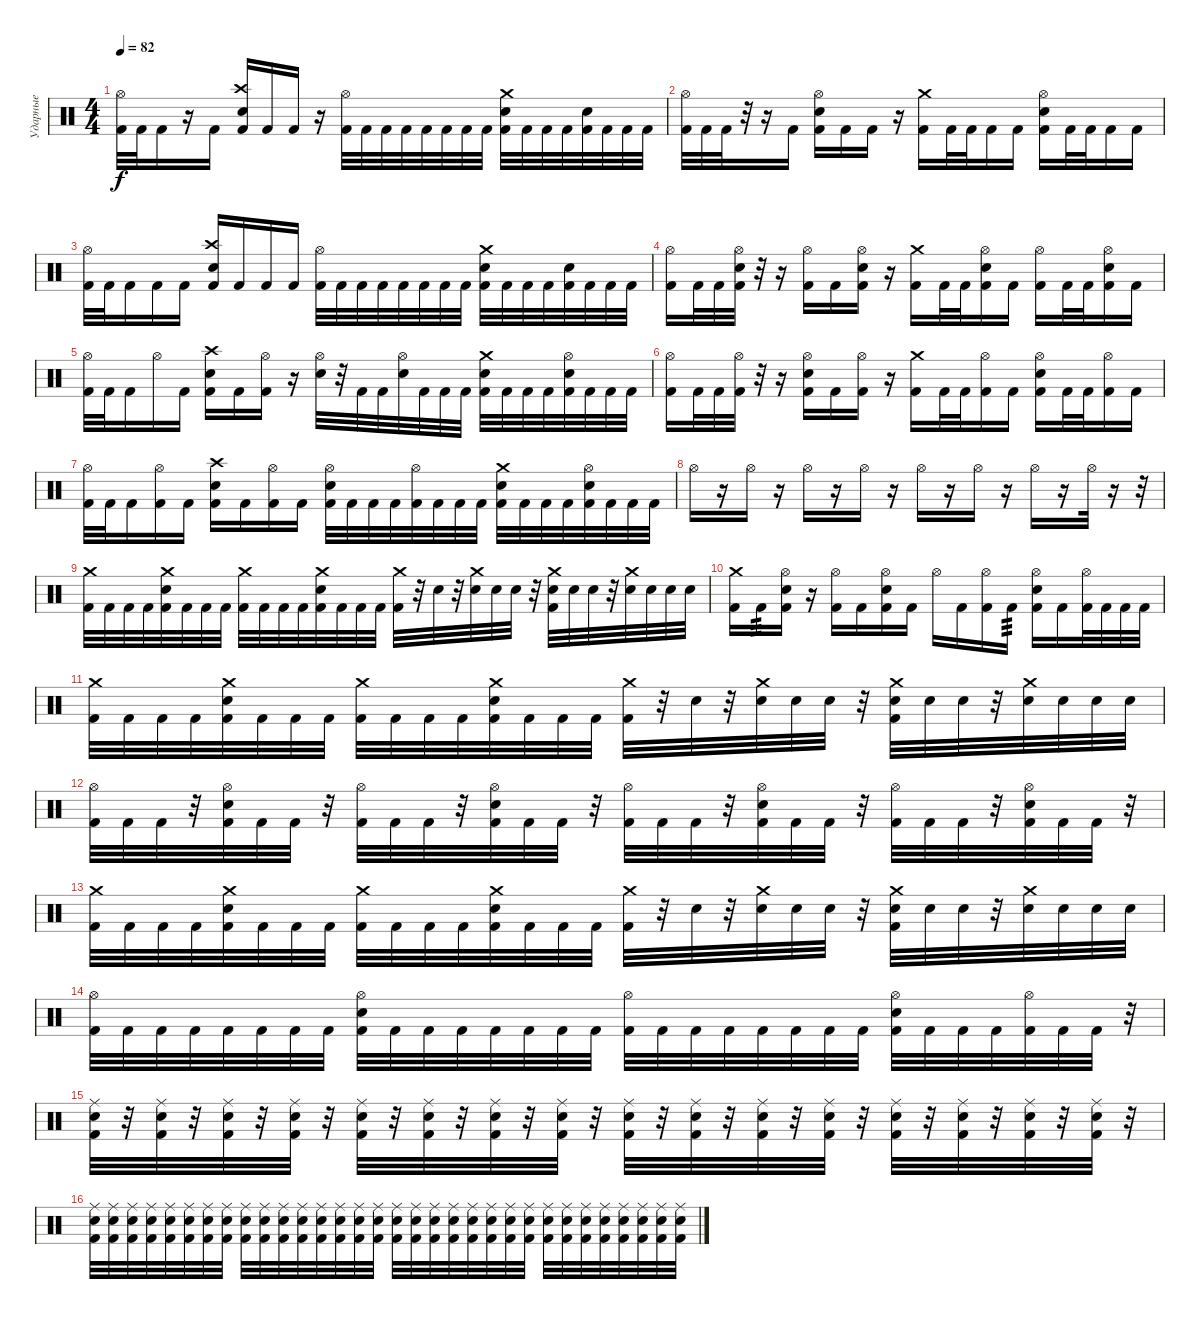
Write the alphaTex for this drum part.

\track ("Ударные" "Ударные") {instrument percussion}
\staff {score}
\articulation defaults
\ts (4 4)
\tempo 82
\clef neutral
\ks c
("Hi-Hat (open)" "Kick (hit) 2").32{dy f} "Kick (hit) 2".32 "Kick (hit) 2".16 r.16 "Kick (hit) 2".16 ("Crash high (hit)" "Snare (hit) 2" "Kick (hit) 2").16 "Kick (hit) 2".16 "Kick (hit) 2".16 r.16 ("Hi-Hat (open)" "Kick (hit) 2").32 "Kick (hit) 2".32 "Kick (hit) 2".32 "Kick (hit) 2".32 "Kick (hit) 2".32 "Kick (hit) 2".32 "Kick (hit) 2".32 "Kick (hit) 2".32 ("Crash medium (hit)" "Snare (hit) 2" "Kick (hit) 2").32 "Kick (hit) 2".32 "Kick (hit) 2".32 "Kick (hit) 2".32 ("Snare (hit) 2" "Kick (hit) 2").32 "Kick (hit) 2".32 "Kick (hit) 2".32 "Kick (hit) 2".32 |
("Hi-Hat (open)" "Kick (hit) 2").32 "Kick (hit) 2".32 "Kick (hit) 2".32 r.32 r.16 "Kick (hit) 2".16 ("Hi-Hat (open)" "Snare (hit) 2" "Kick (hit) 2").16 "Kick (hit) 2".16 "Kick (hit) 2".16 r.16 ("Crash medium (hit)" "Kick (hit) 2").16 "Kick (hit) 2".32 "Kick (hit) 2".32 "Kick (hit) 2".16 "Kick (hit) 2".16 ("Hi-Hat (open)" "Snare (hit) 2" "Kick (hit) 2").16 "Kick (hit) 2".32 "Kick (hit) 2".32 "Kick (hit) 2".16 "Kick (hit) 2".16 |
("Hi-Hat (open)" "Kick (hit) 2").32 "Kick (hit) 2".32 "Kick (hit) 2".16 "Kick (hit) 2".16 "Kick (hit) 2".16 ("Crash high (hit)" "Snare (hit) 2" "Kick (hit) 2").16 "Kick (hit) 2".16 "Kick (hit) 2".16 "Kick (hit) 2".16 ("Hi-Hat (open)" "Kick (hit) 2").32 "Kick (hit) 2".32 "Kick (hit) 2".32 "Kick (hit) 2".32 "Kick (hit) 2".32 "Kick (hit) 2".32 "Kick (hit) 2".32 "Kick (hit) 2".32 ("Crash medium (hit)" "Snare (hit) 2" "Kick (hit) 2").32 "Kick (hit) 2".32 "Kick (hit) 2".32 "Kick (hit) 2".32 ("Snare (hit) 2" "Kick (hit) 2").32 "Kick (hit) 2".32 "Kick (hit) 2".32 "Kick (hit) 2".32 |
("Hi-Hat (open)" "Kick (hit) 2").16 "Kick (hit) 2".32 "Kick (hit) 2".32 ("Hi-Hat (open)" "Snare (hit) 2" "Kick (hit) 2").32 r.32 r.16 ("Hi-Hat (open)" "Kick (hit) 2").16 "Kick (hit) 2".16 ("Hi-Hat (open)" "Snare (hit) 2" "Kick (hit) 2").16 r.16 ("Crash medium (hit)" "Kick (hit) 2").16 "Kick (hit) 2".32 "Kick (hit) 2".32 ("Hi-Hat (open)" "Snare (hit) 2" "Kick (hit) 2").16 "Kick (hit) 2".16 ("Hi-Hat (open)" "Kick (hit) 2").16 "Kick (hit) 2".32 "Kick (hit) 2".32 ("Hi-Hat (open)" "Snare (hit) 2" "Kick (hit) 2").16 "Kick (hit) 2".16 |
("Hi-Hat (open)" "Kick (hit) 2").32 "Kick (hit) 2".32 "Kick (hit) 2".16 "Hi-Hat (open)".16 "Kick (hit) 2".16 ("Crash high (hit)" "Snare (hit) 2" "Kick (hit) 2").16 "Kick (hit) 2".16 ("Hi-Hat (open)" "Kick (hit) 2").16 r.16 ("Hi-Hat (open)" "Snare (hit) 2").32 r.32 "Kick (hit) 2".32 "Kick (hit) 2".32 ("Hi-Hat (open)" "Snare (hit) 2").32 "Kick (hit) 2".32 "Kick (hit) 2".32 "Kick (hit) 2".32 ("Crash medium (hit)" "Snare (hit) 2" "Kick (hit) 2").32 "Kick (hit) 2".32 "Kick (hit) 2".32 "Kick (hit) 2".32 ("Hi-Hat (open)" "Snare (hit) 2" "Kick (hit) 2").32 "Kick (hit) 2".32 "Kick (hit) 2".32 "Kick (hit) 2".32 |
("Hi-Hat (open)" "Kick (hit) 2").16 "Kick (hit) 2".32 "Kick (hit) 2".32 ("Hi-Hat (open)" "Kick (hit) 2").32 r.32 r.16 ("Hi-Hat (open)" "Snare (hit) 2" "Kick (hit) 2").16 "Kick (hit) 2".16 ("Hi-Hat (open)" "Kick (hit) 2").16 r.16 ("Crash medium (hit)" "Kick (hit) 2").16 "Kick (hit) 2".32 "Kick (hit) 2".32 ("Hi-Hat (open)" "Kick (hit) 2").16 "Kick (hit) 2".16 ("Hi-Hat (open)" "Snare (hit) 2" "Kick (hit) 2").16 "Kick (hit) 2".32 "Kick (hit) 2".32 ("Hi-Hat (open)" "Kick (hit) 2").16 "Kick (hit) 2".16 |
("Hi-Hat (open)" "Kick (hit) 2").32 "Kick (hit) 2".32 "Kick (hit) 2".16 ("Hi-Hat (open)" "Kick (hit) 2").16 "Kick (hit) 2".16 ("Crash high (hit)" "Snare (hit) 2" "Kick (hit) 2").16 "Kick (hit) 2".16 ("Hi-Hat (open)" "Kick (hit) 2").16 "Kick (hit) 2".16 ("Hi-Hat (open)" "Snare (hit) 2" "Kick (hit) 2").32 "Kick (hit) 2".32 "Kick (hit) 2".32 "Kick (hit) 2".32 ("Hi-Hat (open)" "Kick (hit) 2").32 "Kick (hit) 2".32 "Kick (hit) 2".32 "Kick (hit) 2".32 ("Crash medium (hit)" "Snare (hit) 2" "Kick (hit) 2").32 "Kick (hit) 2".32 "Kick (hit) 2".32 "Kick (hit) 2".32 ("Hi-Hat (open)" "Snare (hit) 2" "Kick (hit) 2").32 "Kick (hit) 2".32 "Kick (hit) 2".32 "Kick (hit) 2".32 |
"Hi-Hat (open)".16 r.16 "Hi-Hat (open)".16 r.16 "Hi-Hat (open)".16 r.16 "Hi-Hat (open)".16 r.16 "Hi-Hat (open)".16 r.16 "Hi-Hat (open)".16 r.16 "Hi-Hat (open)".16 r.16 "Hi-Hat (open)".32 r.16 r.32 |
("Crash medium (hit)" "Kick (hit) 2").32 "Kick (hit) 2".32 "Kick (hit) 2".32 "Kick (hit) 2".32 ("Crash medium (hit)" "Snare (hit) 2" "Kick (hit) 2").32 "Kick (hit) 2".32 "Kick (hit) 2".32 "Kick (hit) 2".32 ("Crash medium (hit)" "Kick (hit) 2").32 "Kick (hit) 2".32 "Kick (hit) 2".32 "Kick (hit) 2".32 ("Crash medium (hit)" "Snare (hit) 2" "Kick (hit) 2").32 "Kick (hit) 2".32 "Kick (hit) 2".32 "Kick (hit) 2".32 ("Crash medium (hit)" "Kick (hit) 2").32 r.32 "Snare (hit) 2".32 r.32 ("Crash medium (hit)" "Snare (hit) 2").32 "Snare (hit) 2".32 "Snare (hit) 2".32 r.32 ("Crash medium (hit)" "Snare (hit) 2" "Kick (hit) 2").32 "Snare (hit) 2".32 "Snare (hit) 2".32 r.32 ("Crash medium (hit)" "Snare (hit) 2").32 "Snare (hit) 2".32 "Snare (hit) 2".32 "Snare (hit) 2".32 |
("Crash medium (hit)" "Kick (hit) 2").16 "Kick (hit) 2".16{tp 3} ("Hi-Hat (open)" "Snare (hit) 2" "Kick (hit) 2").16 r.16 ("Hi-Hat (open)" "Kick (hit) 2").16 "Kick (hit) 2".16 ("Hi-Hat (open)" "Snare (hit) 2" "Kick (hit) 2").16 "Kick (hit) 2".16 "Hi-Hat (open)".16 "Kick (hit) 2".16 ("Hi-Hat (open)" "Kick (hit) 2").16 "Kick (hit) 2".16{tp 3} ("Hi-Hat (open)" "Snare (hit) 2" "Kick (hit) 2").16 "Kick (hit) 2".16 ("Hi-Hat (open)" "Kick (hit) 2").32 "Kick (hit) 2".32 "Kick (hit) 2".32 "Kick (hit) 2".32 |
("Crash medium (hit)" "Kick (hit) 2").32 "Kick (hit) 2".32 "Kick (hit) 2".32 "Kick (hit) 2".32 ("Crash medium (hit)" "Snare (hit) 2" "Kick (hit) 2").32 "Kick (hit) 2".32 "Kick (hit) 2".32 "Kick (hit) 2".32 ("Crash medium (hit)" "Kick (hit) 2").32 "Kick (hit) 2".32 "Kick (hit) 2".32 "Kick (hit) 2".32 ("Crash medium (hit)" "Snare (hit) 2" "Kick (hit) 2").32 "Kick (hit) 2".32 "Kick (hit) 2".32 "Kick (hit) 2".32 ("Crash medium (hit)" "Kick (hit) 2").32 r.32 "Snare (hit) 2".32 r.32 ("Crash medium (hit)" "Snare (hit) 2").32 "Snare (hit) 2".32 "Snare (hit) 2".32 r.32 ("Crash medium (hit)" "Snare (hit) 2" "Kick (hit) 2").32 "Snare (hit) 2".32 "Snare (hit) 2".32 r.32 ("Crash medium (hit)" "Snare (hit) 2").32 "Snare (hit) 2".32 "Snare (hit) 2".32 "Snare (hit) 2".32 |
("Hi-Hat (open)" "Kick (hit) 2").32 "Kick (hit) 2".32 "Kick (hit) 2".32 r.32 ("Hi-Hat (open)" "Snare (hit) 2" "Kick (hit) 2").32 "Kick (hit) 2".32 "Kick (hit) 2".32 r.32 ("Hi-Hat (open)" "Kick (hit) 2").32 "Kick (hit) 2".32 "Kick (hit) 2".32 r.32 ("Hi-Hat (open)" "Snare (hit) 2" "Kick (hit) 2").32 "Kick (hit) 2".32 "Kick (hit) 2".32 r.32 ("Hi-Hat (open)" "Kick (hit) 2").32 "Kick (hit) 2".32 "Kick (hit) 2".32 r.32 ("Hi-Hat (open)" "Snare (hit) 2" "Kick (hit) 2").32 "Kick (hit) 2".32 "Kick (hit) 2".32 r.32 ("Hi-Hat (open)" "Kick (hit) 2").32 "Kick (hit) 2".32 "Kick (hit) 2".32 r.32 ("Hi-Hat (open)" "Snare (hit) 2" "Kick (hit) 2").32 "Kick (hit) 2".32 "Kick (hit) 2".32 r.32 |
("Crash medium (hit)" "Kick (hit) 2").32 "Kick (hit) 2".32 "Kick (hit) 2".32 "Kick (hit) 2".32 ("Crash medium (hit)" "Snare (hit) 2" "Kick (hit) 2").32 "Kick (hit) 2".32 "Kick (hit) 2".32 "Kick (hit) 2".32 ("Crash medium (hit)" "Kick (hit) 2").32 "Kick (hit) 2".32 "Kick (hit) 2".32 "Kick (hit) 2".32 ("Crash medium (hit)" "Snare (hit) 2" "Kick (hit) 2").32 "Kick (hit) 2".32 "Kick (hit) 2".32 "Kick (hit) 2".32 ("Crash medium (hit)" "Kick (hit) 2").32 r.32 "Snare (hit) 2".32 r.32 ("Crash medium (hit)" "Snare (hit) 2").32 "Snare (hit) 2".32 "Snare (hit) 2".32 r.32 ("Crash medium (hit)" "Snare (hit) 2" "Kick (hit) 2").32 "Snare (hit) 2".32 "Snare (hit) 2".32 r.32 ("Crash medium (hit)" "Snare (hit) 2").32 "Snare (hit) 2".32 "Snare (hit) 2".32 "Snare (hit) 2".32 |
("Hi-Hat (open)" "Kick (hit) 2").32 "Kick (hit) 2".32 "Kick (hit) 2".32 "Kick (hit) 2".32 "Kick (hit) 2".32 "Kick (hit) 2".32 "Kick (hit) 2".32 "Kick (hit) 2".32 ("Hi-Hat (open)" "Snare (hit) 2" "Kick (hit) 2").32 "Kick (hit) 2".32 "Kick (hit) 2".32 "Kick (hit) 2".32 "Kick (hit) 2".32 "Kick (hit) 2".32 "Kick (hit) 2".32 "Kick (hit) 2".32 ("Hi-Hat (open)" "Kick (hit) 2").32 "Kick (hit) 2".32 "Kick (hit) 2".32 "Kick (hit) 2".32 "Kick (hit) 2".32 "Kick (hit) 2".32 "Kick (hit) 2".32 "Kick (hit) 2".32 ("Hi-Hat (open)" "Snare (hit) 2" "Kick (hit) 2").32 "Kick (hit) 2".32 "Kick (hit) 2".32 "Kick (hit) 2".32 ("Hi-Hat (open)" "Kick (hit) 2").32 "Kick (hit) 2".32 "Kick (hit) 2".32 r.32 |
("Ride (middle)" "Kick (hit) 2" "Snare (hit) 2").32 r.32 ("Ride (middle)" "Kick (hit) 2" "Snare (hit) 2").32 r.32 ("Ride (middle)" "Kick (hit) 2" "Snare (hit) 2").32 r.32 ("Ride (middle)" "Kick (hit) 2" "Snare (hit) 2").32 r.32 ("Ride (middle)" "Kick (hit) 2" "Snare (hit) 2").32 r.32 ("Ride (middle)" "Kick (hit) 2" "Snare (hit) 2").32 r.32 ("Ride (middle)" "Kick (hit) 2" "Snare (hit) 2").32 r.32 ("Ride (middle)" "Kick (hit) 2" "Snare (hit) 2").32 r.32 ("Ride (middle)" "Kick (hit) 2" "Snare (hit) 2").32 r.32 ("Ride (middle)" "Kick (hit) 2" "Snare (hit) 2").32 r.32 ("Ride (middle)" "Kick (hit) 2" "Snare (hit) 2").32 r.32 ("Ride (middle)" "Kick (hit) 2" "Snare (hit) 2").32 r.32 ("Ride (middle)" "Kick (hit) 2" "Snare (hit) 2").32 r.32 ("Ride (middle)" "Kick (hit) 2" "Snare (hit) 2").32 r.32 ("Ride (middle)" "Kick (hit) 2" "Snare (hit) 2").32 r.32 ("Ride (middle)" "Kick (hit) 2" "Snare (hit) 2").32 r.32 |
("Ride (middle)" "Kick (hit) 2" "Snare (hit) 2").32 ("Ride (middle)" "Kick (hit) 2" "Snare (hit) 2").32 ("Ride (middle)" "Kick (hit) 2" "Snare (hit) 2").32 ("Ride (middle)" "Kick (hit) 2" "Snare (hit) 2").32 ("Ride (middle)" "Kick (hit) 2" "Snare (hit) 2").32 ("Ride (middle)" "Kick (hit) 2" "Snare (hit) 2").32 ("Ride (middle)" "Kick (hit) 2" "Snare (hit) 2").32 ("Ride (middle)" "Kick (hit) 2" "Snare (hit) 2").32 ("Ride (middle)" "Kick (hit) 2" "Snare (hit) 2").32 ("Ride (middle)" "Kick (hit) 2" "Snare (hit) 2").32 ("Ride (middle)" "Kick (hit) 2" "Snare (hit) 2").32 ("Ride (middle)" "Kick (hit) 2" "Snare (hit) 2").32 ("Ride (middle)" "Kick (hit) 2" "Snare (hit) 2").32 ("Ride (middle)" "Kick (hit) 2" "Snare (hit) 2").32 ("Ride (middle)" "Kick (hit) 2" "Snare (hit) 2").32 ("Ride (middle)" "Kick (hit) 2" "Snare (hit) 2").32 ("Ride (middle)" "Kick (hit) 2" "Snare (hit) 2").32 ("Ride (middle)" "Kick (hit) 2" "Snare (hit) 2").32 ("Ride (middle)" "Kick (hit) 2" "Snare (hit) 2").32 ("Ride (middle)" "Kick (hit) 2" "Snare (hit) 2").32 ("Ride (middle)" "Kick (hit) 2" "Snare (hit) 2").32 ("Ride (middle)" "Kick (hit) 2" "Snare (hit) 2").32 ("Ride (middle)" "Kick (hit) 2" "Snare (hit) 2").32 ("Ride (middle)" "Kick (hit) 2" "Snare (hit) 2").32 ("Ride (middle)" "Kick (hit) 2" "Snare (hit) 2").32 ("Ride (middle)" "Kick (hit) 2" "Snare (hit) 2").32 ("Ride (middle)" "Kick (hit) 2" "Snare (hit) 2").32 ("Ride (middle)" "Kick (hit) 2" "Snare (hit) 2").32 ("Ride (middle)" "Kick (hit) 2" "Snare (hit) 2").32 ("Ride (middle)" "Kick (hit) 2" "Snare (hit) 2").32 ("Ride (middle)" "Kick (hit) 2" "Snare (hit) 2").32 ("Ride (middle)" "Kick (hit) 2" "Snare (hit) 2").32
